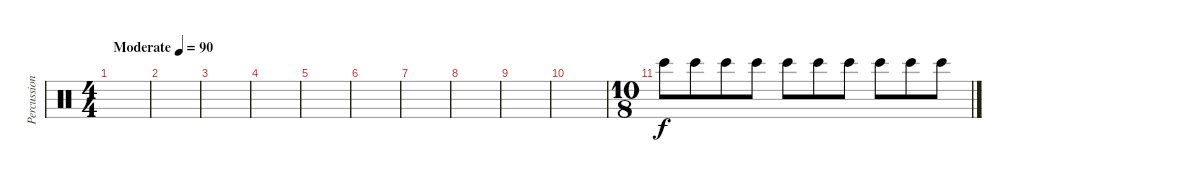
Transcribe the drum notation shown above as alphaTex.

\track ("Percussion" "Percussion") {instrument percussion}
\staff {score}
\articulation defaults
\ts (4 4)
\tempo (90 "Moderate")
\clef neutral
\ks c
|
|
|
|
|
|
|
|
|
|
\ts (10 8)
"Bongo High (hit)".8 "Bongo High (hit)".8 "Bongo High (hit)".8 "Bongo High (hit)".8 "Bongo High (hit)".8 "Bongo High (hit)".8 "Bongo High (hit)".8 "Bongo High (hit)".8 "Bongo High (hit)".8 "Bongo High (hit)".8
